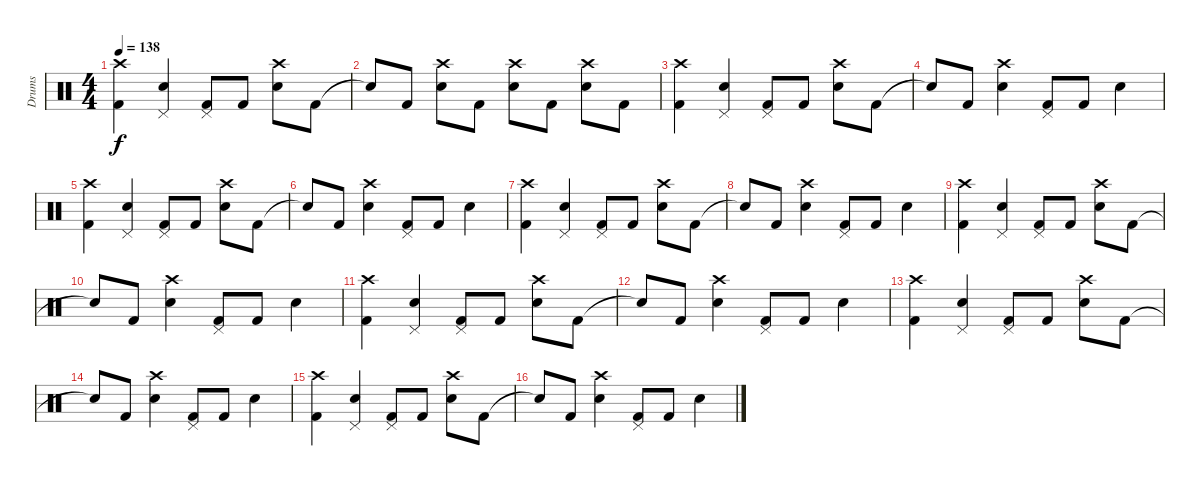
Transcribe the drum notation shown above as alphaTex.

\track ("Drums" "Drums") {instrument percussion}
\staff {score}
\articulation defaults
\ts (4 4)
\tempo 138
\clef neutral
\ks c
("Crash high (hit)" "Kick (hit) 2").4{dy f} ("Pedal Hi-Hat (hit)" "Snare (hit) 2").4 ("Pedal Hi-Hat (hit)" "Kick (hit) 2").8 "Kick (hit) 2".8 ("Crash high (hit)" "Snare (hit) 2").8 "Kick (hit) 2".8 |
"Snare (hit)"{t}.8 "Kick (hit) 2".8 ("Crash high (hit)" "Snare (hit) 2").8 "Kick (hit) 2".8 ("Crash high (hit)" "Snare (hit) 2").8 "Kick (hit) 2".8 ("Crash high (hit)" "Snare (hit) 2").8 "Kick (hit) 2".8 |
("Crash high (hit)" "Kick (hit) 2").4 ("Pedal Hi-Hat (hit)" "Snare (hit) 2").4 ("Pedal Hi-Hat (hit)" "Kick (hit) 2").8 "Kick (hit) 2".8 ("Crash high (hit)" "Snare (hit) 2").8 "Kick (hit) 2".8 |
"Snare (hit)"{t}.8 "Kick (hit) 2".8 ("Crash high (hit)" "Snare (hit) 2").4 ("Pedal Hi-Hat (hit)" "Kick (hit) 2").8 "Kick (hit) 2".8 "Snare (hit) 2".4 |
("Crash high (hit)" "Kick (hit) 2").4 ("Pedal Hi-Hat (hit)" "Snare (hit) 2").4 ("Pedal Hi-Hat (hit)" "Kick (hit) 2").8 "Kick (hit) 2".8 ("Crash high (hit)" "Snare (hit) 2").8 "Kick (hit) 2".8 |
"Snare (hit)"{t}.8 "Kick (hit) 2".8 ("Crash high (hit)" "Snare (hit) 2").4 ("Pedal Hi-Hat (hit)" "Kick (hit) 2").8 "Kick (hit) 2".8 "Snare (hit) 2".4 |
("Crash high (hit)" "Kick (hit) 2").4 ("Pedal Hi-Hat (hit)" "Snare (hit) 2").4 ("Pedal Hi-Hat (hit)" "Kick (hit) 2").8 "Kick (hit) 2".8 ("Crash high (hit)" "Snare (hit) 2").8 "Kick (hit) 2".8 |
"Snare (hit)"{t}.8 "Kick (hit) 2".8 ("Crash high (hit)" "Snare (hit) 2").4 ("Pedal Hi-Hat (hit)" "Kick (hit) 2").8 "Kick (hit) 2".8 "Snare (hit) 2".4 |
("Crash high (hit)" "Kick (hit) 2").4 ("Pedal Hi-Hat (hit)" "Snare (hit) 2").4 ("Pedal Hi-Hat (hit)" "Kick (hit) 2").8 "Kick (hit) 2".8 ("Crash high (hit)" "Snare (hit) 2").8 "Kick (hit) 2".8 |
"Snare (hit)"{t}.8 "Kick (hit) 2".8 ("Crash high (hit)" "Snare (hit) 2").4 ("Pedal Hi-Hat (hit)" "Kick (hit) 2").8 "Kick (hit) 2".8 "Snare (hit) 2".4 |
("Crash high (hit)" "Kick (hit) 2").4 ("Pedal Hi-Hat (hit)" "Snare (hit) 2").4 ("Pedal Hi-Hat (hit)" "Kick (hit) 2").8 "Kick (hit) 2".8 ("Crash high (hit)" "Snare (hit) 2").8 "Kick (hit) 2".8 |
"Snare (hit)"{t}.8 "Kick (hit) 2".8 ("Crash high (hit)" "Snare (hit) 2").4 ("Pedal Hi-Hat (hit)" "Kick (hit) 2").8 "Kick (hit) 2".8 "Snare (hit) 2".4 |
("Crash high (hit)" "Kick (hit) 2").4 ("Pedal Hi-Hat (hit)" "Snare (hit) 2").4 ("Pedal Hi-Hat (hit)" "Kick (hit) 2").8 "Kick (hit) 2".8 ("Crash high (hit)" "Snare (hit) 2").8 "Kick (hit) 2".8 |
"Snare (hit)"{t}.8 "Kick (hit) 2".8 ("Crash high (hit)" "Snare (hit) 2").4 ("Pedal Hi-Hat (hit)" "Kick (hit) 2").8 "Kick (hit) 2".8 "Snare (hit) 2".4 |
("Crash high (hit)" "Kick (hit) 2").4 ("Pedal Hi-Hat (hit)" "Snare (hit) 2").4 ("Pedal Hi-Hat (hit)" "Kick (hit) 2").8 "Kick (hit) 2".8 ("Crash high (hit)" "Snare (hit) 2").8 "Kick (hit) 2".8 |
"Snare (hit)"{t}.8 "Kick (hit) 2".8 ("Crash high (hit)" "Snare (hit) 2").4 ("Pedal Hi-Hat (hit)" "Kick (hit) 2").8 "Kick (hit) 2".8 "Snare (hit) 2".4
